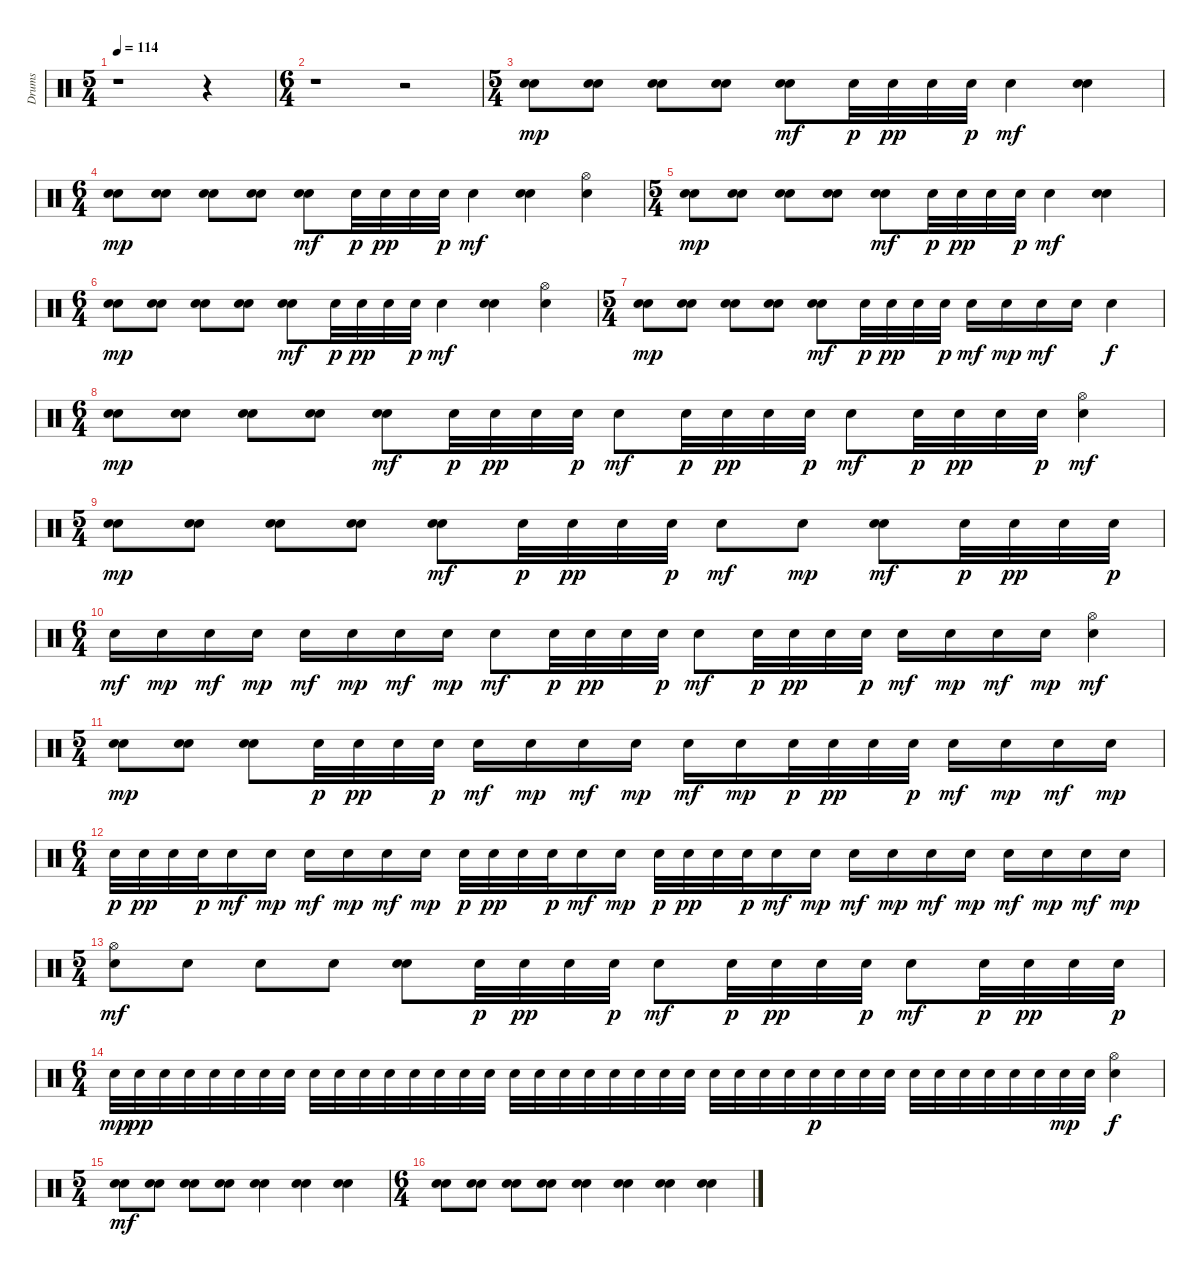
\track ("Drums" "Drums") {instrument percussion}
\staff {score}
\articulation defaults
\ts (5 4)
\tempo 114
\clef neutral
\ks c
r.1{dy mp} r.4 |
\ts (6 4)
r.1 r.2 |
\ts (5 4)
("Electric Snare (hit)" "Electric Snare (hit)").8 ("Electric Snare (hit)" "Electric Snare (hit)").8 ("Electric Snare (hit)" "Electric Snare (hit)").8 ("Electric Snare (hit)" "Electric Snare (hit)").8 ("Electric Snare (hit)" "Electric Snare (hit)").8{dy mf} "Electric Snare (hit)".32{dy p} "Electric Snare (hit)".32{dy pp} "Electric Snare (hit)".32 "Electric Snare (hit)".32{dy p} "Electric Snare (hit)".4{dy mf} ("Electric Snare (hit)" "Electric Snare (hit)").4 |
\ts (6 4)
("Electric Snare (hit)" "Electric Snare (hit)").8{dy mp} ("Electric Snare (hit)" "Electric Snare (hit)").8 ("Electric Snare (hit)" "Electric Snare (hit)").8 ("Electric Snare (hit)" "Electric Snare (hit)").8 ("Electric Snare (hit)" "Electric Snare (hit)").8{dy mf} "Electric Snare (hit)".32{dy p} "Electric Snare (hit)".32{dy pp} "Electric Snare (hit)".32 "Electric Snare (hit)".32{dy p} "Electric Snare (hit)".4{dy mf} ("Electric Snare (hit)" "Electric Snare (hit)").4 ("Electric Snare (hit)" "Hi-Hat (open)").4 |
\ts (5 4)
("Electric Snare (hit)" "Electric Snare (hit)").8{dy mp} ("Electric Snare (hit)" "Electric Snare (hit)").8 ("Electric Snare (hit)" "Electric Snare (hit)").8 ("Electric Snare (hit)" "Electric Snare (hit)").8 ("Electric Snare (hit)" "Electric Snare (hit)").8{dy mf} "Electric Snare (hit)".32{dy p} "Electric Snare (hit)".32{dy pp} "Electric Snare (hit)".32 "Electric Snare (hit)".32{dy p} "Electric Snare (hit)".4{dy mf} ("Electric Snare (hit)" "Electric Snare (hit)").4 |
\ts (6 4)
("Electric Snare (hit)" "Electric Snare (hit)").8{dy mp} ("Electric Snare (hit)" "Electric Snare (hit)").8 ("Electric Snare (hit)" "Electric Snare (hit)").8 ("Electric Snare (hit)" "Electric Snare (hit)").8 ("Electric Snare (hit)" "Electric Snare (hit)").8{dy mf} "Electric Snare (hit)".32{dy p} "Electric Snare (hit)".32{dy pp} "Electric Snare (hit)".32 "Electric Snare (hit)".32{dy p} "Electric Snare (hit)".4{dy mf} ("Electric Snare (hit)" "Electric Snare (hit)").4 ("Hi-Hat (open)" "Electric Snare (hit)").4 |
\ts (5 4)
("Electric Snare (hit)" "Electric Snare (hit)").8{dy mp} ("Electric Snare (hit)" "Electric Snare (hit)").8 ("Electric Snare (hit)" "Electric Snare (hit)").8 ("Electric Snare (hit)" "Electric Snare (hit)").8 ("Electric Snare (hit)" "Electric Snare (hit)").8{dy mf} "Electric Snare (hit)".32{dy p} "Electric Snare (hit)".32{dy pp} "Electric Snare (hit)".32 "Electric Snare (hit)".32{dy p} "Electric Snare (hit)".16{dy mf} "Electric Snare (hit)".16{dy mp} "Electric Snare (hit)".16{dy mf} "Electric Snare (hit)".16 "Electric Snare (hit)".4{dy f} |
\ts (6 4)
("Electric Snare (hit)" "Electric Snare (hit)").8{dy mp} ("Electric Snare (hit)" "Electric Snare (hit)").8 ("Electric Snare (hit)" "Electric Snare (hit)").8 ("Electric Snare (hit)" "Electric Snare (hit)").8 ("Electric Snare (hit)" "Electric Snare (hit)").8{dy mf} "Electric Snare (hit)".32{dy p} "Electric Snare (hit)".32{dy pp} "Electric Snare (hit)".32 "Electric Snare (hit)".32{dy p} "Electric Snare (hit)".8{dy mf} "Electric Snare (hit)".32{dy p} "Electric Snare (hit)".32{dy pp} "Electric Snare (hit)".32 "Electric Snare (hit)".32{dy p} "Electric Snare (hit)".8{dy mf} "Electric Snare (hit)".32{dy p} "Electric Snare (hit)".32{dy pp} "Electric Snare (hit)".32 "Electric Snare (hit)".32{dy p} ("Hi-Hat (open)" "Electric Snare (hit)").4{dy mf} |
\ts (5 4)
("Electric Snare (hit)" "Electric Snare (hit)").8{dy mp} ("Electric Snare (hit)" "Electric Snare (hit)").8 ("Electric Snare (hit)" "Electric Snare (hit)").8 ("Electric Snare (hit)" "Electric Snare (hit)").8 ("Electric Snare (hit)" "Electric Snare (hit)").8{dy mf} "Electric Snare (hit)".32{dy p} "Electric Snare (hit)".32{dy pp} "Electric Snare (hit)".32 "Electric Snare (hit)".32{dy p} "Electric Snare (hit)".8{dy mf} "Electric Snare (hit)".8{dy mp} ("Electric Snare (hit)" "Electric Snare (hit)").8{dy mf} "Electric Snare (hit)".32{dy p} "Electric Snare (hit)".32{dy pp} "Electric Snare (hit)".32 "Electric Snare (hit)".32{dy p} |
\ts (6 4)
"Electric Snare (hit)".16{dy mf} "Electric Snare (hit)".16{dy mp} "Electric Snare (hit)".16{dy mf} "Electric Snare (hit)".16{dy mp} "Electric Snare (hit)".16{dy mf} "Electric Snare (hit)".16{dy mp} "Electric Snare (hit)".16{dy mf} "Electric Snare (hit)".16{dy mp} "Electric Snare (hit)".8{dy mf} "Electric Snare (hit)".32{dy p} "Electric Snare (hit)".32{dy pp} "Electric Snare (hit)".32 "Electric Snare (hit)".32{dy p} "Electric Snare (hit)".8{dy mf} "Electric Snare (hit)".32{dy p} "Electric Snare (hit)".32{dy pp} "Electric Snare (hit)".32 "Electric Snare (hit)".32{dy p} "Electric Snare (hit)".16{dy mf} "Electric Snare (hit)".16{dy mp} "Electric Snare (hit)".16{dy mf} "Electric Snare (hit)".16{dy mp} ("Hi-Hat (open)" "Electric Snare (hit)").4{dy mf} |
\ts (5 4)
("Electric Snare (hit)" "Electric Snare (hit)").8{dy mp} ("Electric Snare (hit)" "Electric Snare (hit)").8 ("Electric Snare (hit)" "Electric Snare (hit)").8 "Electric Snare (hit)".32{dy p} "Electric Snare (hit)".32{dy pp} "Electric Snare (hit)".32 "Electric Snare (hit)".32{dy p} "Electric Snare (hit)".16{dy mf} "Electric Snare (hit)".16{dy mp} "Electric Snare (hit)".16{dy mf} "Electric Snare (hit)".16{dy mp} "Electric Snare (hit)".16{dy mf} "Electric Snare (hit)".16{dy mp} "Electric Snare (hit)".32{dy p} "Electric Snare (hit)".32{dy pp} "Electric Snare (hit)".32 "Electric Snare (hit)".32{dy p} "Electric Snare (hit)".16{dy mf} "Electric Snare (hit)".16{dy mp} "Electric Snare (hit)".16{dy mf} "Electric Snare (hit)".16{dy mp} |
\ts (6 4)
"Electric Snare (hit)".32{dy p} "Electric Snare (hit)".32{dy pp} "Electric Snare (hit)".32 "Electric Snare (hit)".32{dy p} "Electric Snare (hit)".16{dy mf} "Electric Snare (hit)".16{dy mp} "Electric Snare (hit)".16{dy mf} "Electric Snare (hit)".16{dy mp} "Electric Snare (hit)".16{dy mf} "Electric Snare (hit)".16{dy mp} "Electric Snare (hit)".32{dy p} "Electric Snare (hit)".32{dy pp} "Electric Snare (hit)".32 "Electric Snare (hit)".32{dy p} "Electric Snare (hit)".16{dy mf} "Electric Snare (hit)".16{dy mp} "Electric Snare (hit)".32{dy p} "Electric Snare (hit)".32{dy pp} "Electric Snare (hit)".32 "Electric Snare (hit)".32{dy p} "Electric Snare (hit)".16{dy mf} "Electric Snare (hit)".16{dy mp} "Electric Snare (hit)".16{dy mf} "Electric Snare (hit)".16{dy mp} "Electric Snare (hit)".16{dy mf} "Electric Snare (hit)".16{dy mp} "Electric Snare (hit)".16{dy mf} "Electric Snare (hit)".16{dy mp} "Electric Snare (hit)".16{dy mf} "Electric Snare (hit)".16{dy mp} |
\ts (5 4)
("Hi-Hat (open)" "Electric Snare (hit)").8{dy mf} "Electric Snare (hit)".8 "Electric Snare (hit)".8 "Electric Snare (hit)".8 ("Electric Snare (hit)" "Electric Snare (hit)").8 "Electric Snare (hit)".32{dy p} "Electric Snare (hit)".32{dy pp} "Electric Snare (hit)".32 "Electric Snare (hit)".32{dy p} "Electric Snare (hit)".8{dy mf} "Electric Snare (hit)".32{dy p} "Electric Snare (hit)".32{dy pp} "Electric Snare (hit)".32 "Electric Snare (hit)".32{dy p} "Electric Snare (hit)".8{dy mf} "Electric Snare (hit)".32{dy p} "Electric Snare (hit)".32{dy pp} "Electric Snare (hit)".32 "Electric Snare (hit)".32{dy p} |
\ts (6 4)
"Electric Snare (hit)".32{dy mp} "Electric Snare (hit)".32{dy pp} "Electric Snare (hit)".32 "Electric Snare (hit)".32 "Electric Snare (hit)".32 "Electric Snare (hit)".32 "Electric Snare (hit)".32 "Electric Snare (hit)".32 "Electric Snare (hit)".32 "Electric Snare (hit)".32 "Electric Snare (hit)".32 "Electric Snare (hit)".32 "Electric Snare (hit)".32 "Electric Snare (hit)".32 "Electric Snare (hit)".32 "Electric Snare (hit)".32 "Electric Snare (hit)".32 "Electric Snare (hit)".32 "Electric Snare (hit)".32 "Electric Snare (hit)".32 "Electric Snare (hit)".32 "Electric Snare (hit)".32 "Electric Snare (hit)".32 "Electric Snare (hit)".32 "Electric Snare (hit)".32 "Electric Snare (hit)".32 "Electric Snare (hit)".32 "Electric Snare (hit)".32 "Electric Snare (hit)".32{dy p} "Electric Snare (hit)".32 "Electric Snare (hit)".32 "Electric Snare (hit)".32 "Electric Snare (hit)".32 "Electric Snare (hit)".32 "Electric Snare (hit)".32 "Electric Snare (hit)".32 "Electric Snare (hit)".32 "Electric Snare (hit)".32 "Electric Snare (hit)".32{dy mp} "Electric Snare (hit)".32 ("Hi-Hat (open)" "Electric Snare (hit)").4{dy f} |
\ts (5 4)
("Electric Snare (hit)" "Electric Snare (hit)").8{dy mf} ("Electric Snare (hit)" "Electric Snare (hit)").8 ("Electric Snare (hit)" "Electric Snare (hit)").8 ("Electric Snare (hit)" "Electric Snare (hit)").8 ("Electric Snare (hit)" "Electric Snare (hit)").4 ("Electric Snare (hit)" "Electric Snare (hit)").4 ("Electric Snare (hit)" "Electric Snare (hit)").4 |
\ts (6 4)
("Electric Snare (hit)" "Electric Snare (hit)").8 ("Electric Snare (hit)" "Electric Snare (hit)").8 ("Electric Snare (hit)" "Electric Snare (hit)").8 ("Electric Snare (hit)" "Electric Snare (hit)").8 ("Electric Snare (hit)" "Electric Snare (hit)").4 ("Electric Snare (hit)" "Electric Snare (hit)").4 ("Electric Snare (hit)" "Electric Snare (hit)").4 ("Electric Snare (hit)" "Electric Snare (hit)").4
